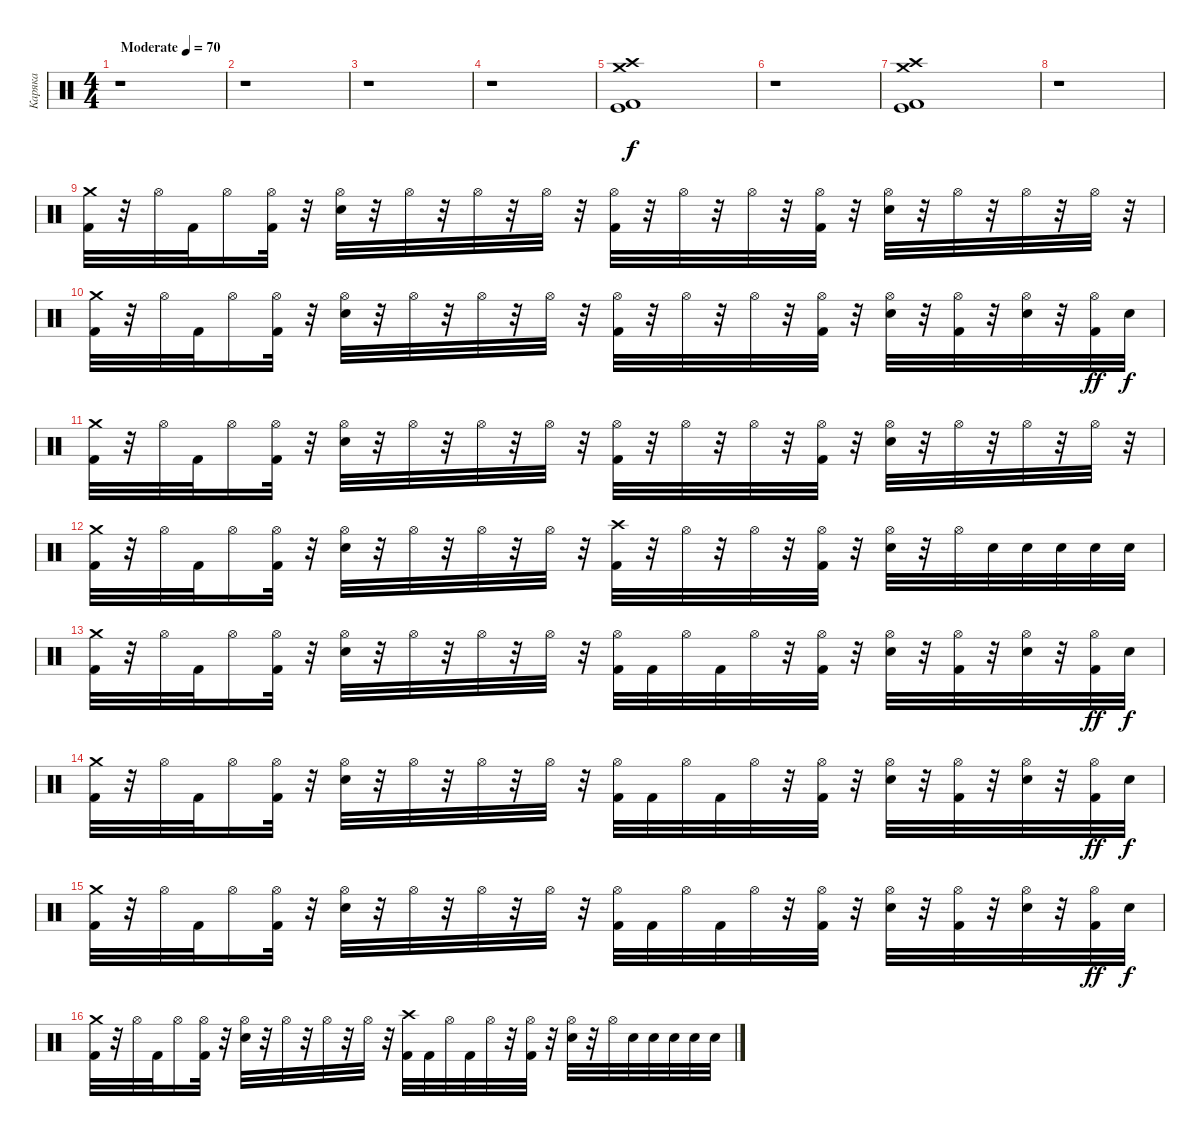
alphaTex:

\track ("Каряка" "Каряка") {instrument percussion}
\staff {score}
\articulation defaults
\ts (4 4)
\tempo (70 "Moderate")
\clef neutral
\ks c
r.1{dy f} |
r.1 |
r.1 |
r.1 |
("Crash medium (hit)" "Crash high (hit)" "Kick (hit) 2" "Kick (hit)").1 |
r.1 |
("Crash medium (hit)" "Crash high (hit)" "Kick (hit) 2" "Kick (hit)").1 |
r.1 |
("Crash medium (hit)" "Kick (hit) 2").32 r.32 "Hi-Hat (open)".32 "Kick (hit) 2".32 "Hi-Hat (open)".16 ("Hi-Hat (open)" "Kick (hit) 2").32 r.32 ("Hi-Hat (open)" "Snare (hit) 2").32 r.32 "Hi-Hat (open)".32 r.32 "Hi-Hat (open)".32 r.32 "Hi-Hat (open)".32 r.32 ("Hi-Hat (open)" "Kick (hit) 2").32 r.32 "Hi-Hat (open)".32 r.32 "Hi-Hat (open)".32 r.32 ("Hi-Hat (open)" "Kick (hit) 2").32 r.32 ("Hi-Hat (open)" "Snare (hit) 2").32 r.32 "Hi-Hat (open)".32 r.32 "Hi-Hat (open)".32 r.32 "Hi-Hat (open)".32 r.32 |
("Crash medium (hit)" "Kick (hit) 2").32 r.32 "Hi-Hat (open)".32 "Kick (hit) 2".32 "Hi-Hat (open)".16 ("Hi-Hat (open)" "Kick (hit) 2").32 r.32 ("Hi-Hat (open)" "Snare (hit) 2").32 r.32 "Hi-Hat (open)".32 r.32 "Hi-Hat (open)".32 r.32 "Hi-Hat (open)".32 r.32 ("Hi-Hat (open)" "Kick (hit) 2").32 r.32 "Hi-Hat (open)".32 r.32 "Hi-Hat (open)".32 r.32 ("Hi-Hat (open)" "Kick (hit) 2").32 r.32 ("Hi-Hat (open)" "Snare (hit) 2").32 r.32 ("Hi-Hat (open)" "Kick (hit) 2").32 r.32 ("Hi-Hat (open)" "Snare (hit) 2").32 r.32 ("Hi-Hat (open)" "Kick (hit) 2").32{dy ff} "Snare (hit) 2".32{dy f} |
("Crash medium (hit)" "Kick (hit) 2").32 r.32 "Hi-Hat (open)".32 "Kick (hit) 2".32 "Hi-Hat (open)".16 ("Hi-Hat (open)" "Kick (hit) 2").32 r.32 ("Hi-Hat (open)" "Snare (hit) 2").32 r.32 "Hi-Hat (open)".32 r.32 "Hi-Hat (open)".32 r.32 "Hi-Hat (open)".32 r.32 ("Hi-Hat (open)" "Kick (hit) 2").32 r.32 "Hi-Hat (open)".32 r.32 "Hi-Hat (open)".32 r.32 ("Hi-Hat (open)" "Kick (hit) 2").32 r.32 ("Hi-Hat (open)" "Snare (hit) 2").32 r.32 "Hi-Hat (open)".32 r.32 "Hi-Hat (open)".32 r.32 "Hi-Hat (open)".32 r.32 |
("Crash medium (hit)" "Kick (hit) 2").32 r.32 "Hi-Hat (open)".32 "Kick (hit) 2".32 "Hi-Hat (open)".16 ("Hi-Hat (open)" "Kick (hit) 2").32 r.32 ("Hi-Hat (open)" "Snare (hit) 2").32 r.32 "Hi-Hat (open)".32 r.32 "Hi-Hat (open)".32 r.32 "Hi-Hat (open)".32 r.32 ("Crash high (hit)" "Kick (hit) 2").32 r.32 "Hi-Hat (open)".32 r.32 "Hi-Hat (open)".32 r.32 ("Hi-Hat (open)" "Kick (hit) 2").32 r.32 ("Hi-Hat (open)" "Snare (hit) 2").32 r.32 "Hi-Hat (open)".32 "Snare (hit) 2".32 "Snare (hit) 2".32 "Snare (hit) 2".32 "Snare (hit) 2".32 "Snare (hit) 2".32 |
("Crash medium (hit)" "Kick (hit) 2").32 r.32 "Hi-Hat (open)".32 "Kick (hit) 2".32 "Hi-Hat (open)".16 ("Hi-Hat (open)" "Kick (hit) 2").32 r.32 ("Hi-Hat (open)" "Snare (hit) 2").32 r.32 "Hi-Hat (open)".32 r.32 "Hi-Hat (open)".32 r.32 "Hi-Hat (open)".32 r.32 ("Hi-Hat (open)" "Kick (hit) 2").32 "Kick (hit) 2".32 "Hi-Hat (open)".32 "Kick (hit) 2".32 "Hi-Hat (open)".32 r.32 ("Hi-Hat (open)" "Kick (hit) 2").32 r.32 ("Hi-Hat (open)" "Snare (hit) 2").32 r.32 ("Hi-Hat (open)" "Kick (hit) 2").32 r.32 ("Hi-Hat (open)" "Snare (hit) 2").32 r.32 ("Hi-Hat (open)" "Kick (hit) 2").32{dy ff} "Snare (hit) 2".32{dy f} |
("Crash medium (hit)" "Kick (hit) 2").32 r.32 "Hi-Hat (open)".32 "Kick (hit) 2".32 "Hi-Hat (open)".16 ("Hi-Hat (open)" "Kick (hit) 2").32 r.32 ("Hi-Hat (open)" "Snare (hit) 2").32 r.32 "Hi-Hat (open)".32 r.32 "Hi-Hat (open)".32 r.32 "Hi-Hat (open)".32 r.32 ("Hi-Hat (open)" "Kick (hit) 2").32 "Kick (hit) 2".32 "Hi-Hat (open)".32 "Kick (hit) 2".32 "Hi-Hat (open)".32 r.32 ("Hi-Hat (open)" "Kick (hit) 2").32 r.32 ("Hi-Hat (open)" "Snare (hit) 2").32 r.32 ("Hi-Hat (open)" "Kick (hit) 2").32 r.32 ("Hi-Hat (open)" "Snare (hit) 2").32 r.32 ("Hi-Hat (open)" "Kick (hit) 2").32{dy ff} "Snare (hit) 2".32{dy f} |
("Crash medium (hit)" "Kick (hit) 2").32 r.32 "Hi-Hat (open)".32 "Kick (hit) 2".32 "Hi-Hat (open)".16 ("Hi-Hat (open)" "Kick (hit) 2").32 r.32 ("Hi-Hat (open)" "Snare (hit) 2").32 r.32 "Hi-Hat (open)".32 r.32 "Hi-Hat (open)".32 r.32 "Hi-Hat (open)".32 r.32 ("Hi-Hat (open)" "Kick (hit) 2").32 "Kick (hit) 2".32 "Hi-Hat (open)".32 "Kick (hit) 2".32 "Hi-Hat (open)".32 r.32 ("Hi-Hat (open)" "Kick (hit) 2").32 r.32 ("Hi-Hat (open)" "Snare (hit) 2").32 r.32 ("Hi-Hat (open)" "Kick (hit) 2").32 r.32 ("Hi-Hat (open)" "Snare (hit) 2").32 r.32 ("Hi-Hat (open)" "Kick (hit) 2").32{dy ff} "Snare (hit) 2".32{dy f} |
("Crash medium (hit)" "Kick (hit) 2").32 r.32 "Hi-Hat (open)".32 "Kick (hit) 2".32 "Hi-Hat (open)".16 ("Hi-Hat (open)" "Kick (hit) 2").32 r.32 ("Hi-Hat (open)" "Snare (hit) 2").32 r.32 "Hi-Hat (open)".32 r.32 "Hi-Hat (open)".32 r.32 "Hi-Hat (open)".32 r.32 ("Crash high (hit)" "Kick (hit) 2").32 "Kick (hit) 2".32 "Hi-Hat (open)".32 "Kick (hit) 2".32 "Hi-Hat (open)".32 r.32 ("Hi-Hat (open)" "Kick (hit) 2").32 r.32 ("Hi-Hat (open)" "Snare (hit) 2").32 r.32 "Hi-Hat (open)".32 "Snare (hit) 2".32 "Snare (hit) 2".32 "Snare (hit) 2".32 "Snare (hit) 2".32 "Snare (hit) 2".32
